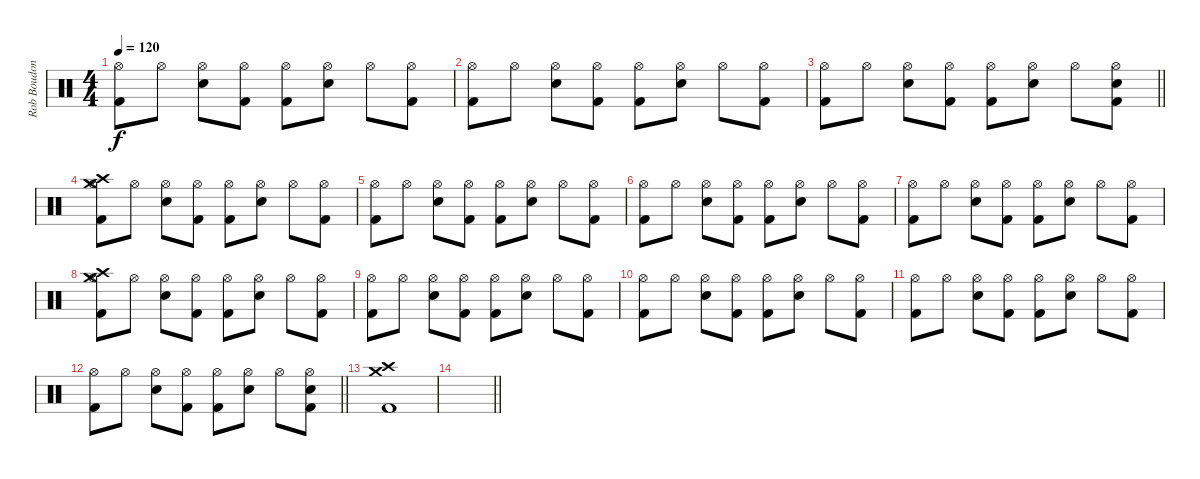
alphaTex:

\track ("Rob Boudon [Drums]" "Rob Boudon") {instrument percussion}
\staff {score}
\articulation defaults
\ts (4 4)
\tempo 120
\clef neutral
\ks c
("Hi-Hat (open)" "Kick (hit) 2").8{dy f} "Hi-Hat (open)".8 ("Hi-Hat (open)" "Snare (hit) 2").8 ("Hi-Hat (open)" "Kick (hit) 2").8 ("Hi-Hat (open)" "Kick (hit) 2").8 ("Hi-Hat (open)" "Snare (hit) 2").8 "Hi-Hat (open)".8 ("Hi-Hat (open)" "Kick (hit) 2").8 |
("Hi-Hat (open)" "Kick (hit) 2").8 "Hi-Hat (open)".8 ("Hi-Hat (open)" "Snare (hit) 2").8 ("Hi-Hat (open)" "Kick (hit) 2").8 ("Hi-Hat (open)" "Kick (hit) 2").8 ("Hi-Hat (open)" "Snare (hit) 2").8 "Hi-Hat (open)".8 ("Hi-Hat (open)" "Kick (hit) 2").8 |
\barLineRight lightlight
("Hi-Hat (open)" "Kick (hit) 2").8 "Hi-Hat (open)".8 ("Hi-Hat (open)" "Snare (hit) 2").8 ("Hi-Hat (open)" "Kick (hit) 2").8 ("Hi-Hat (open)" "Kick (hit) 2").8 ("Hi-Hat (open)" "Snare (hit) 2").8 "Hi-Hat (open)".8 ("Hi-Hat (open)" "Snare (hit) 2" "Kick (hit) 2").8 |
("Crash medium (hit)" "Crash high (hit)" "Hi-Hat (open)" "Kick (hit) 2").8 "Hi-Hat (open)".8 ("Hi-Hat (open)" "Snare (hit) 2").8 ("Hi-Hat (open)" "Kick (hit) 2").8 ("Hi-Hat (open)" "Kick (hit) 2").8 ("Hi-Hat (open)" "Snare (hit) 2").8 "Hi-Hat (open)".8 ("Hi-Hat (open)" "Kick (hit) 2").8 |
("Hi-Hat (open)" "Kick (hit) 2").8 "Hi-Hat (open)".8 ("Hi-Hat (open)" "Snare (hit) 2").8 ("Hi-Hat (open)" "Kick (hit) 2").8 ("Hi-Hat (open)" "Kick (hit) 2").8 ("Hi-Hat (open)" "Snare (hit) 2").8 "Hi-Hat (open)".8 ("Hi-Hat (open)" "Kick (hit) 2").8 |
("Hi-Hat (open)" "Kick (hit) 2").8 "Hi-Hat (open)".8 ("Hi-Hat (open)" "Snare (hit) 2").8 ("Hi-Hat (open)" "Kick (hit) 2").8 ("Hi-Hat (open)" "Kick (hit) 2").8 ("Hi-Hat (open)" "Snare (hit) 2").8 "Hi-Hat (open)".8 ("Hi-Hat (open)" "Kick (hit) 2").8 |
("Hi-Hat (open)" "Kick (hit) 2").8 "Hi-Hat (open)".8 ("Hi-Hat (open)" "Snare (hit) 2").8 ("Hi-Hat (open)" "Kick (hit) 2").8 ("Hi-Hat (open)" "Kick (hit) 2").8 ("Hi-Hat (open)" "Snare (hit) 2").8 "Hi-Hat (open)".8 ("Hi-Hat (open)" "Kick (hit) 2").8 |
("Crash medium (hit)" "Crash high (hit)" "Hi-Hat (open)" "Kick (hit) 2").8 "Hi-Hat (open)".8 ("Hi-Hat (open)" "Snare (hit) 2").8 ("Hi-Hat (open)" "Kick (hit) 2").8 ("Hi-Hat (open)" "Kick (hit) 2").8 ("Hi-Hat (open)" "Snare (hit) 2").8 "Hi-Hat (open)".8 ("Hi-Hat (open)" "Kick (hit) 2").8 |
("Hi-Hat (open)" "Kick (hit) 2").8 "Hi-Hat (open)".8 ("Hi-Hat (open)" "Snare (hit) 2").8 ("Hi-Hat (open)" "Kick (hit) 2").8 ("Hi-Hat (open)" "Kick (hit) 2").8 ("Hi-Hat (open)" "Snare (hit) 2").8 "Hi-Hat (open)".8 ("Hi-Hat (open)" "Kick (hit) 2").8 |
("Hi-Hat (open)" "Kick (hit) 2").8 "Hi-Hat (open)".8 ("Hi-Hat (open)" "Snare (hit) 2").8 ("Hi-Hat (open)" "Kick (hit) 2").8 ("Hi-Hat (open)" "Kick (hit) 2").8 ("Hi-Hat (open)" "Snare (hit) 2").8 "Hi-Hat (open)".8 ("Hi-Hat (open)" "Kick (hit) 2").8 |
("Hi-Hat (open)" "Kick (hit) 2").8 "Hi-Hat (open)".8 ("Hi-Hat (open)" "Snare (hit) 2").8 ("Hi-Hat (open)" "Kick (hit) 2").8 ("Hi-Hat (open)" "Kick (hit) 2").8 ("Hi-Hat (open)" "Snare (hit) 2").8 "Hi-Hat (open)".8 ("Hi-Hat (open)" "Kick (hit) 2").8 |
\barLineRight lightlight
("Hi-Hat (open)" "Kick (hit) 2").8 "Hi-Hat (open)".8 ("Hi-Hat (open)" "Snare (hit) 2").8 ("Hi-Hat (open)" "Kick (hit) 2").8 ("Hi-Hat (open)" "Kick (hit) 2").8 ("Hi-Hat (open)" "Snare (hit) 2").8 "Hi-Hat (open)".8 ("Hi-Hat (open)" "Snare (hit) 2" "Kick (hit) 2").8 |
("Crash medium (hit)" "Crash high (hit)" "Kick (hit) 2").1 |
\barLineRight lightlight
